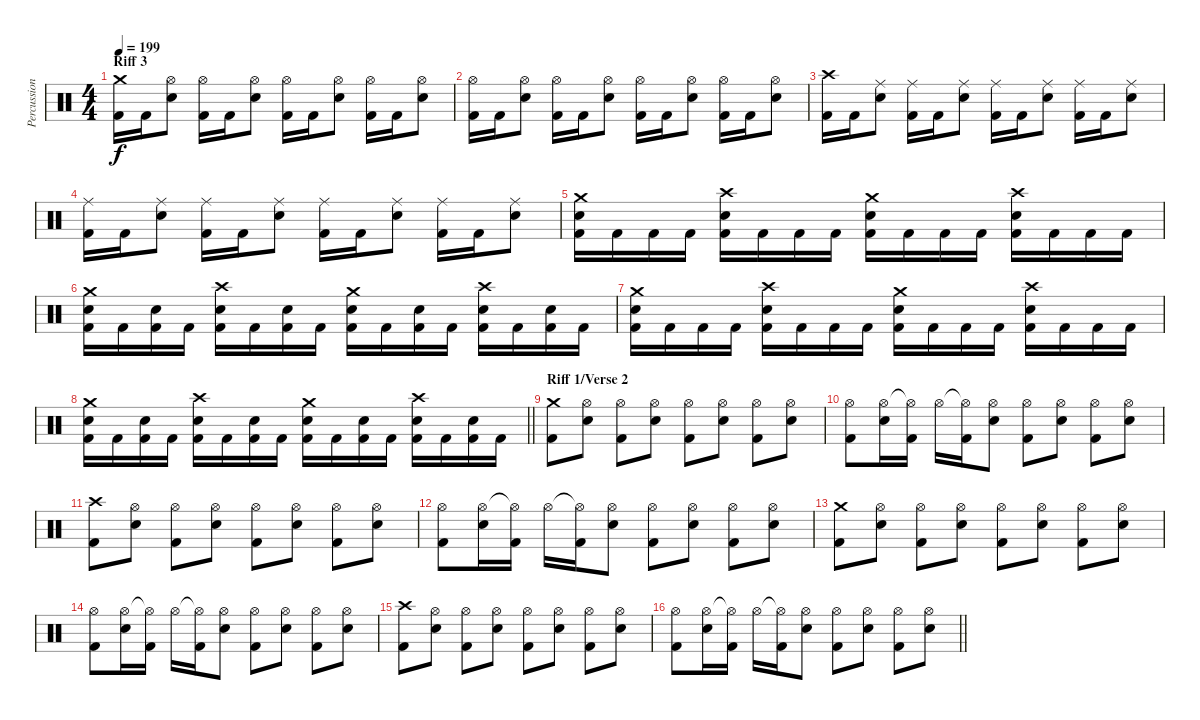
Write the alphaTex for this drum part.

\track ("Percussion" "Percussion") {instrument percussion}
\staff {score}
\articulation defaults
\ts (4 4)
\section ("" "Riff 3")
\tempo 199
\clef neutral
\ks c
("Crash medium (hit)" "Kick (hit) 2").16{dy f} "Kick (hit) 2".16 ("Hi-Hat (open)" "Electric Snare (hit)").8 ("Hi-Hat (open)" "Kick (hit) 2").16 "Kick (hit) 2".16 ("Hi-Hat (open)" "Electric Snare (hit)").8 ("Hi-Hat (open)" "Kick (hit) 2").16 "Kick (hit) 2".16 ("Hi-Hat (open)" "Electric Snare (hit)").8 ("Hi-Hat (open)" "Kick (hit) 2").16 "Kick (hit) 2".16 ("Hi-Hat (open)" "Electric Snare (hit)").8 |
("Hi-Hat (open)" "Kick (hit) 2").16 "Kick (hit) 2".16 ("Hi-Hat (open)" "Electric Snare (hit)").8 ("Hi-Hat (open)" "Kick (hit) 2").16 "Kick (hit) 2".16 ("Hi-Hat (open)" "Electric Snare (hit)").8 ("Hi-Hat (open)" "Kick (hit) 2").16 "Kick (hit) 2".16 ("Hi-Hat (open)" "Electric Snare (hit)").8 ("Hi-Hat (open)" "Kick (hit) 2").16 "Kick (hit) 2".16 ("Hi-Hat (open)" "Electric Snare (hit)").8 |
("Crash high (hit)" "Kick (hit) 2").16 "Kick (hit) 2".16 ("Ride (middle)" "Electric Snare (hit)").8 ("Ride (middle)" "Kick (hit) 2").16 "Kick (hit) 2".16 ("Ride (middle)" "Electric Snare (hit)").8 ("Ride (middle)" "Kick (hit) 2").16 "Kick (hit) 2".16 ("Ride (middle)" "Electric Snare (hit)").8 ("Ride (middle)" "Kick (hit) 2").16 "Kick (hit) 2".16 ("Ride (middle)" "Electric Snare (hit)").8 |
("Ride (middle)" "Kick (hit) 2").16 "Kick (hit) 2".16 ("Ride (middle)" "Electric Snare (hit)").8 ("Ride (middle)" "Kick (hit) 2").16 "Kick (hit) 2".16 ("Ride (middle)" "Electric Snare (hit)").8 ("Ride (middle)" "Kick (hit) 2").16 "Kick (hit) 2".16 ("Ride (middle)" "Electric Snare (hit)").8 ("Ride (middle)" "Kick (hit) 2").16 "Kick (hit) 2".16 ("Ride (middle)" "Electric Snare (hit)").8 |
("Crash medium (hit)" "Electric Snare (hit)" "Kick (hit) 2").16 "Kick (hit) 2".16 "Kick (hit) 2".16 "Kick (hit) 2".16 ("Crash high (hit)" "Electric Snare (hit)" "Kick (hit) 2").16 "Kick (hit) 2".16 "Kick (hit) 2".16 "Kick (hit) 2".16 ("Crash medium (hit)" "Electric Snare (hit)" "Kick (hit) 2").16 "Kick (hit) 2".16 "Kick (hit) 2".16 "Kick (hit) 2".16 ("Crash high (hit)" "Electric Snare (hit)" "Kick (hit) 2").16 "Kick (hit) 2".16 "Kick (hit) 2".16 "Kick (hit) 2".16 |
("Crash medium (hit)" "Electric Snare (hit)" "Kick (hit) 2").16 "Kick (hit) 2".16 ("Electric Snare (hit)" "Kick (hit) 2").16 "Kick (hit) 2".16 ("Crash high (hit)" "Electric Snare (hit)" "Kick (hit) 2").16 "Kick (hit) 2".16 ("Electric Snare (hit)" "Kick (hit) 2").16 "Kick (hit) 2".16 ("Crash medium (hit)" "Electric Snare (hit)" "Kick (hit) 2").16 "Kick (hit) 2".16 ("Electric Snare (hit)" "Kick (hit) 2").16 "Kick (hit) 2".16 ("Crash high (hit)" "Electric Snare (hit)" "Kick (hit) 2").16 "Kick (hit) 2".16 ("Electric Snare (hit)" "Kick (hit) 2").16 "Kick (hit) 2".16 |
("Crash medium (hit)" "Electric Snare (hit)" "Kick (hit) 2").16 "Kick (hit) 2".16 "Kick (hit) 2".16 "Kick (hit) 2".16 ("Crash high (hit)" "Electric Snare (hit)" "Kick (hit) 2").16 "Kick (hit) 2".16 "Kick (hit) 2".16 "Kick (hit) 2".16 ("Crash medium (hit)" "Electric Snare (hit)" "Kick (hit) 2").16 "Kick (hit) 2".16 "Kick (hit) 2".16 "Kick (hit) 2".16 ("Crash high (hit)" "Electric Snare (hit)" "Kick (hit) 2").16 "Kick (hit) 2".16 "Kick (hit) 2".16 "Kick (hit) 2".16 |
\barLineRight lightlight
("Crash medium (hit)" "Electric Snare (hit)" "Kick (hit) 2").16 "Kick (hit) 2".16 ("Electric Snare (hit)" "Kick (hit) 2").16 "Kick (hit) 2".16 ("Crash high (hit)" "Electric Snare (hit)" "Kick (hit) 2").16 "Kick (hit) 2".16 ("Electric Snare (hit)" "Kick (hit) 2").16 "Kick (hit) 2".16 ("Crash medium (hit)" "Electric Snare (hit)" "Kick (hit) 2").16 "Kick (hit) 2".16 ("Electric Snare (hit)" "Kick (hit) 2").16 "Kick (hit) 2".16 ("Crash high (hit)" "Electric Snare (hit)" "Kick (hit) 2").16 "Kick (hit) 2".16 ("Electric Snare (hit)" "Kick (hit) 2").16 "Kick (hit) 2".16 |
\section ("" "Riff 1/Verse 2")
("Crash medium (hit)" "Kick (hit) 2").8 ("Hi-Hat (open)" "Electric Snare (hit)").8 ("Hi-Hat (open)" "Kick (hit) 2").8 ("Hi-Hat (open)" "Electric Snare (hit)").8 ("Hi-Hat (open)" "Kick (hit) 2").8 ("Hi-Hat (open)" "Electric Snare (hit)").8 ("Hi-Hat (open)" "Kick (hit) 2").8 ("Hi-Hat (open)" "Electric Snare (hit)").8 |
("Hi-Hat (open)" "Kick (hit) 2").8 ("Hi-Hat (open)" "Electric Snare (hit)").16 ("Hi-Hat (open)"{t} "Kick (hit) 2").16 "Hi-Hat (open)".16 ("Hi-Hat (open)"{t} "Kick (hit) 2").16 ("Hi-Hat (open)" "Electric Snare (hit)").8 ("Hi-Hat (open)" "Kick (hit) 2").8 ("Hi-Hat (open)" "Electric Snare (hit)").8 ("Hi-Hat (open)" "Kick (hit) 2").8 ("Hi-Hat (open)" "Electric Snare (hit)").8 |
("Crash high (hit)" "Kick (hit) 2").8 ("Hi-Hat (open)" "Electric Snare (hit)").8 ("Hi-Hat (open)" "Kick (hit) 2").8 ("Hi-Hat (open)" "Electric Snare (hit)").8 ("Hi-Hat (open)" "Kick (hit) 2").8 ("Hi-Hat (open)" "Electric Snare (hit)").8 ("Hi-Hat (open)" "Kick (hit) 2").8 ("Hi-Hat (open)" "Electric Snare (hit)").8 |
("Hi-Hat (open)" "Kick (hit) 2").8 ("Hi-Hat (open)" "Electric Snare (hit)").16 ("Hi-Hat (open)"{t} "Kick (hit) 2").16 "Hi-Hat (open)".16 ("Hi-Hat (open)"{t} "Kick (hit) 2").16 ("Hi-Hat (open)" "Electric Snare (hit)").8 ("Hi-Hat (open)" "Kick (hit) 2").8 ("Hi-Hat (open)" "Electric Snare (hit)").8 ("Hi-Hat (open)" "Kick (hit) 2").8 ("Hi-Hat (open)" "Electric Snare (hit)").8 |
("Crash medium (hit)" "Kick (hit) 2").8 ("Hi-Hat (open)" "Electric Snare (hit)").8 ("Hi-Hat (open)" "Kick (hit) 2").8 ("Hi-Hat (open)" "Electric Snare (hit)").8 ("Hi-Hat (open)" "Kick (hit) 2").8 ("Hi-Hat (open)" "Electric Snare (hit)").8 ("Hi-Hat (open)" "Kick (hit) 2").8 ("Hi-Hat (open)" "Electric Snare (hit)").8 |
("Hi-Hat (open)" "Kick (hit) 2").8 ("Hi-Hat (open)" "Electric Snare (hit)").16 ("Hi-Hat (open)"{t} "Kick (hit) 2").16 "Hi-Hat (open)".16 ("Hi-Hat (open)"{t} "Kick (hit) 2").16 ("Hi-Hat (open)" "Electric Snare (hit)").8 ("Hi-Hat (open)" "Kick (hit) 2").8 ("Hi-Hat (open)" "Electric Snare (hit)").8 ("Hi-Hat (open)" "Kick (hit) 2").8 ("Hi-Hat (open)" "Electric Snare (hit)").8 |
("Crash high (hit)" "Kick (hit) 2").8 ("Hi-Hat (open)" "Electric Snare (hit)").8 ("Hi-Hat (open)" "Kick (hit) 2").8 ("Hi-Hat (open)" "Electric Snare (hit)").8 ("Hi-Hat (open)" "Kick (hit) 2").8 ("Hi-Hat (open)" "Electric Snare (hit)").8 ("Hi-Hat (open)" "Kick (hit) 2").8 ("Hi-Hat (open)" "Electric Snare (hit)").8 |
\barLineRight lightlight
("Hi-Hat (open)" "Kick (hit) 2").8 ("Hi-Hat (open)" "Electric Snare (hit)").16 ("Hi-Hat (open)"{t} "Kick (hit) 2").16 "Hi-Hat (open)".16 ("Hi-Hat (open)"{t} "Kick (hit) 2").16 ("Hi-Hat (open)" "Electric Snare (hit)").8 ("Hi-Hat (open)" "Kick (hit) 2").8 ("Hi-Hat (open)" "Electric Snare (hit)").8 ("Hi-Hat (open)" "Kick (hit) 2").8 ("Hi-Hat (open)" "Electric Snare (hit)").8
